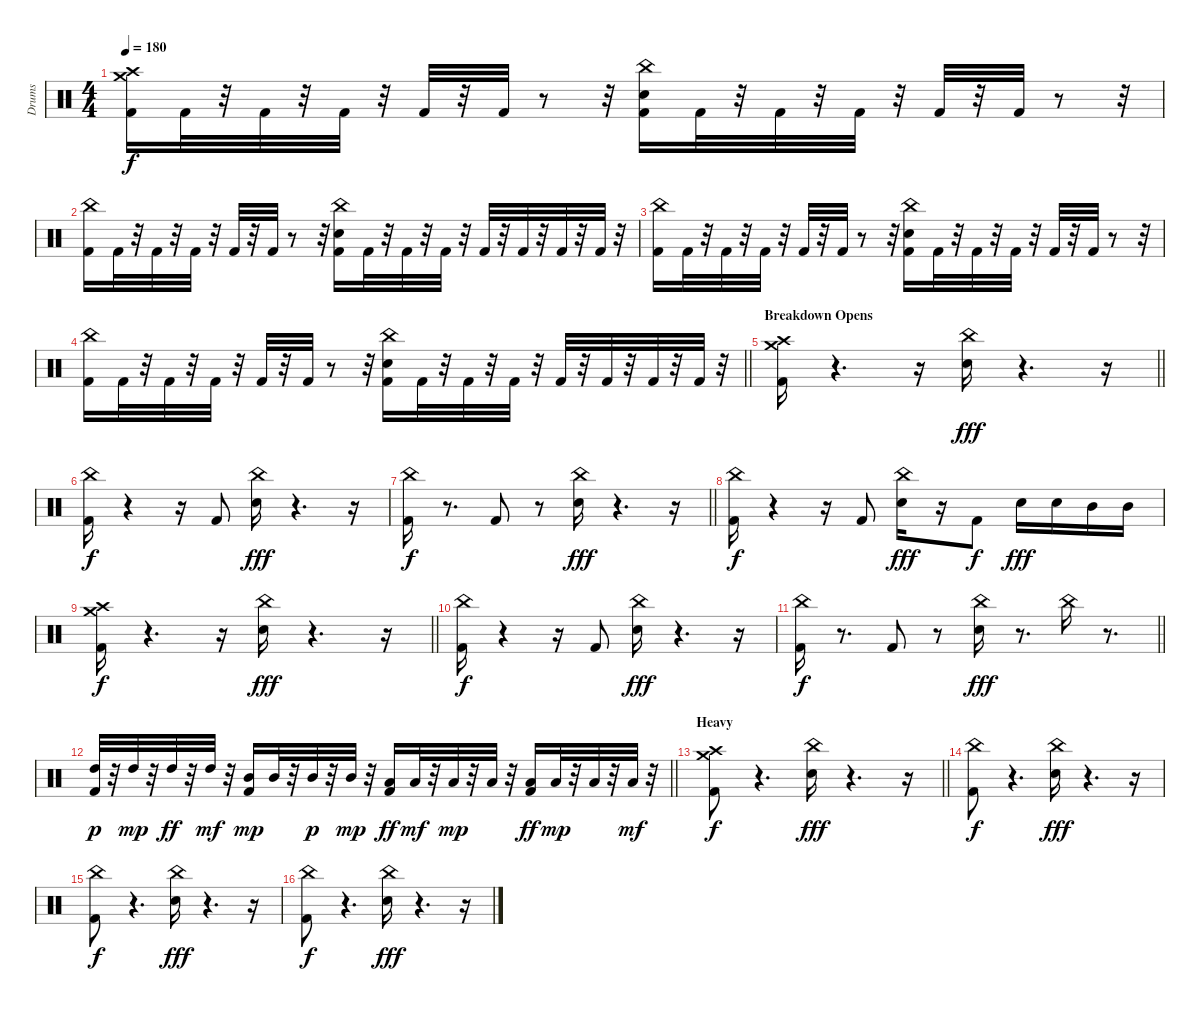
\track ("Drums" "Drums") {instrument percussion}
\staff {score}
\articulation defaults
\ts (4 4)
\tempo 180
\clef neutral
\ks c
("Crash high (hit)" "Crash medium (hit)" "Kick (hit) 2").16{dy f} "Kick (hit) 2".32 r.32 "Kick (hit) 2".32 r.32 "Kick (hit) 2".32 r.32 "Kick (hit) 2".32 r.32 "Kick (hit) 2".32 r.8 r.32 ("Snare (hit) 2" "China (hit)" "Kick (hit) 2").16 "Kick (hit) 2".32 r.32 "Kick (hit) 2".32 r.32 "Kick (hit) 2".32 r.32 "Kick (hit) 2".32 r.32 "Kick (hit) 2".32 r.8 r.32 |
("China (hit)" "Kick (hit) 2").16 "Kick (hit) 2".32 r.32 "Kick (hit) 2".32 r.32 "Kick (hit) 2".32 r.32 "Kick (hit) 2".32 r.32 "Kick (hit) 2".32 r.8 r.32 ("China (hit)" "Kick (hit) 2" "Snare (hit) 2").16 "Kick (hit) 2".32 r.32 "Kick (hit) 2".32 r.32 "Kick (hit) 2".32 r.32 "Kick (hit) 2".32 r.32 "Kick (hit) 2".32 r.32 "Kick (hit) 2".32 r.32 "Kick (hit) 2".32 r.32 |
("China (hit)" "Kick (hit) 2").16 "Kick (hit) 2".32 r.32 "Kick (hit) 2".32 r.32 "Kick (hit) 2".32 r.32 "Kick (hit) 2".32 r.32 "Kick (hit) 2".32 r.8 r.32 ("Snare (hit) 2" "China (hit)" "Kick (hit) 2").16 "Kick (hit) 2".32 r.32 "Kick (hit) 2".32 r.32 "Kick (hit) 2".32 r.32 "Kick (hit) 2".32 r.32 "Kick (hit) 2".32 r.8 r.32 |
\barLineRight lightlight
("China (hit)" "Kick (hit) 2").16 "Kick (hit) 2".32 r.32 "Kick (hit) 2".32 r.32 "Kick (hit) 2".32 r.32 "Kick (hit) 2".32 r.32 "Kick (hit) 2".32 r.8 r.32 ("China (hit)" "Kick (hit) 2" "Snare (hit) 2").16 "Kick (hit) 2".32 r.32 "Kick (hit) 2".32 r.32 "Kick (hit) 2".32 r.32 "Kick (hit) 2".32 r.32 "Kick (hit) 2".32 r.32 "Kick (hit) 2".32 r.32 "Kick (hit) 2".32 r.32 |
\section ("" "Breakdown Opens")
\barLineRight lightlight
("Kick (hit) 2" "Crash high (hit)" "Crash medium (hit)").16 r.4{d} r.16 ("China (hit)" "Snare (hit) 2").16{dy fff} r.4{d} r.16 |
("China (hit)" "Kick (hit) 2").16{dy f} r.4 r.16 "Kick (hit) 2".8 ("China (hit)" "Snare (hit) 2").16{dy fff} r.4{d} r.16 |
\barLineRight lightlight
("Kick (hit) 2" "China (hit)").16{dy f} r.8{d} "Kick (hit) 2".8 r.8 ("China (hit)" "Snare (hit) 2").16{dy fff} r.4{d} r.16 |
("China (hit)" "Kick (hit) 2").16{dy f} r.4 r.16 "Kick (hit) 2".8 ("China (hit)" "Snare (hit) 2").16{dy fff} r.16 "Kick (hit) 2".8{dy f} "Snare (hit) 2".16{dy fff} "Snare (hit) 2".16 "Mid Tom (hit)".16 "Mid Tom (hit)".16 |
\barLineRight lightlight
("Crash high (hit)" "Crash medium (hit)" "Kick (hit) 2").16{dy f} r.4{d} r.16 ("China (hit)" "Snare (hit) 2").16{dy fff} r.4{d} r.16 |
("China (hit)" "Kick (hit) 2").16{dy f} r.4 r.16 "Kick (hit) 2".8 ("China (hit)" "Snare (hit) 2").16{dy fff} r.4{d} r.16 |
\barLineRight lightlight
("Kick (hit) 2" "China (hit)").16{dy f} r.8{d} "Kick (hit) 2".8 r.8 ("China (hit)" "Snare (hit) 2").16{dy fff} r.8{d} "China (hit)".16 r.8{d} |
\barLineRight lightlight
("High Tom (hit)" "Kick (hit) 2").32{dy p} r.32 "High Tom (hit)".32{dy mp} r.32 "High Tom (hit)".32{dy ff} r.32 "High Tom (hit)".32{dy mf} r.32 ("Mid Tom (hit)" "Kick (hit) 2").16{dy mp} "Mid Tom (hit)".32 r.32 "Mid Tom (hit)".32{dy p} r.32 "Mid Tom (hit)".32{dy mp} r.32 ("Low Tom (hit)" "Kick (hit) 2").16{dy ff} "Low Tom (hit)".32{dy mf} r.32 "Low Tom (hit)".32{dy mp} r.32 "Low Tom (hit)".32 r.32 ("Low Tom (hit)" "Kick (hit) 2").16{dy ff} "Low Tom (hit)".32{dy mp} r.32 "Low Tom (hit)".32 r.32 "Low Tom (hit)".32{dy mf} r.32 |
\section ("" "Heavy")
\barLineRight lightlight
("Crash high (hit)" "Crash medium (hit)" "Kick (hit) 2").8{dy f} r.4{d} ("China (hit)" "Snare (hit) 2").16{dy fff} r.4{d} r.16 |
("China (hit)" "Kick (hit) 2").8{dy f} r.4{d} ("China (hit)" "Snare (hit) 2").16{dy fff} r.4{d} r.16 |
("China (hit)" "Kick (hit) 2").8{dy f} r.4{d} ("China (hit)" "Snare (hit) 2").16{dy fff} r.4{d} r.16 |
("China (hit)" "Kick (hit) 2").8{dy f} r.4{d} ("China (hit)" "Snare (hit) 2").16{dy fff} r.4{d} r.16
